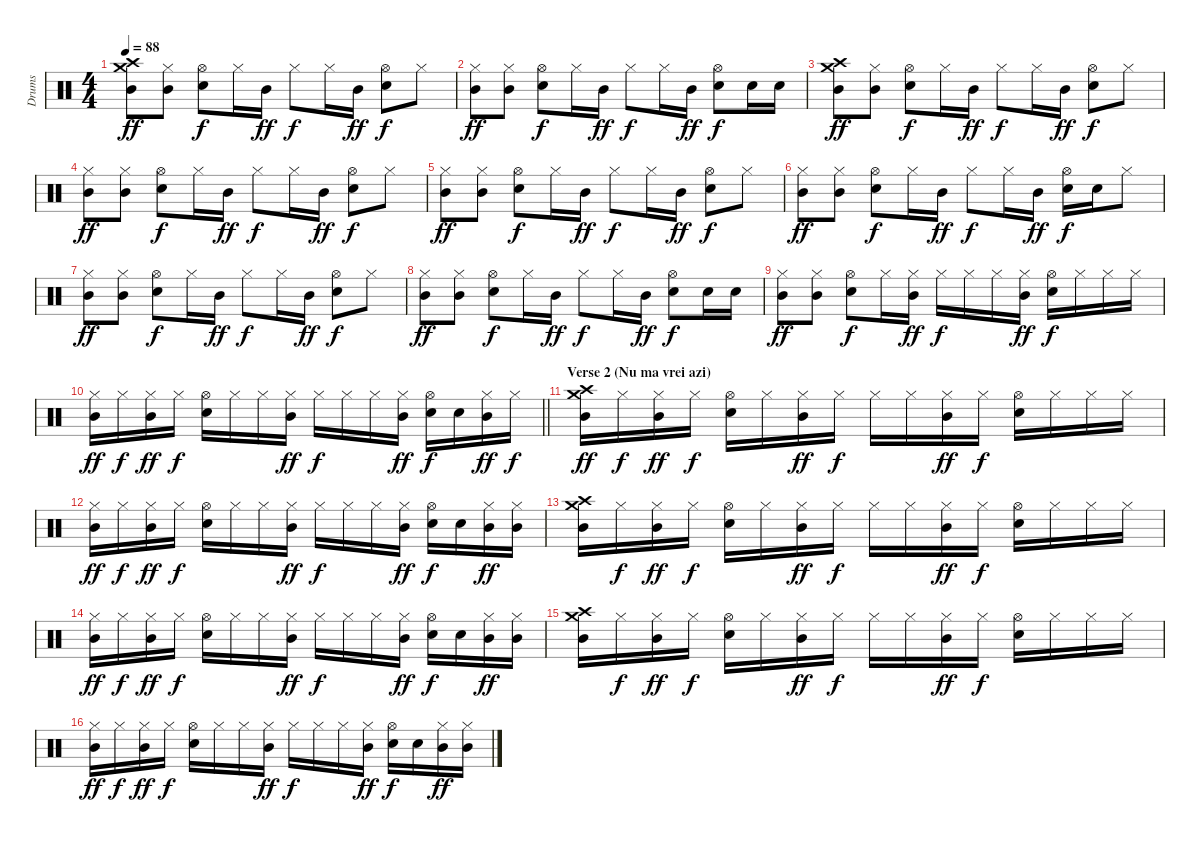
\track ("Drums" "Drums") {instrument percussion}
\staff {score}
\articulation defaults
\ts (4 4)
\tempo 88
\clef neutral
\ks c
("Crash medium (hit)" "Crash high (hit)" "Mid Tom (hit)").8{dy ff} ("Hi-Hat (closed)" "Mid Tom (hit)").8 ("Hi-Hat (open)" "Electric Snare (hit)").8{dy f} "Hi-Hat (closed)".16 "Mid Tom (hit)".16{dy ff} "Hi-Hat (closed)".8{dy f} "Hi-Hat (closed)".16 "Mid Tom (hit)".16{dy ff} ("Hi-Hat (open)" "Electric Snare (hit)").8{dy f} "Hi-Hat (closed)".8 |
("Hi-Hat (closed)" "Mid Tom (hit)").8{dy ff} ("Hi-Hat (closed)" "Mid Tom (hit)").8 ("Hi-Hat (open)" "Electric Snare (hit)").8{dy f} "Hi-Hat (closed)".16 "Mid Tom (hit)".16{dy ff} "Hi-Hat (closed)".8{dy f} "Hi-Hat (closed)".16 "Mid Tom (hit)".16{dy ff} ("Hi-Hat (open)" "Electric Snare (hit)").8{dy f} "Metronome (bell)".16 "Metronome (bell)".16 |
("Crash medium (hit)" "Crash high (hit)" "Mid Tom (hit)").8{dy ff} ("Hi-Hat (closed)" "Mid Tom (hit)").8 ("Hi-Hat (open)" "Electric Snare (hit)").8{dy f} "Hi-Hat (closed)".16 "Mid Tom (hit)".16{dy ff} "Hi-Hat (closed)".8{dy f} "Hi-Hat (closed)".16 "Mid Tom (hit)".16{dy ff} ("Hi-Hat (open)" "Electric Snare (hit)").8{dy f} "Hi-Hat (closed)".8 |
("Hi-Hat (closed)" "Mid Tom (hit)").8{dy ff} ("Hi-Hat (closed)" "Mid Tom (hit)").8 ("Hi-Hat (open)" "Electric Snare (hit)").8{dy f} "Hi-Hat (closed)".16 "Mid Tom (hit)".16{dy ff} "Hi-Hat (closed)".8{dy f} "Hi-Hat (closed)".16 "Mid Tom (hit)".16{dy ff} ("Hi-Hat (open)" "Electric Snare (hit)").8{dy f} "Hi-Hat (closed)".8 |
("Hi-Hat (closed)" "Mid Tom (hit)").8{dy ff} ("Hi-Hat (closed)" "Mid Tom (hit)").8 ("Hi-Hat (open)" "Electric Snare (hit)").8{dy f} "Hi-Hat (closed)".16 "Mid Tom (hit)".16{dy ff} "Hi-Hat (closed)".8{dy f} "Hi-Hat (closed)".16 "Mid Tom (hit)".16{dy ff} ("Hi-Hat (open)" "Electric Snare (hit)").8{dy f} "Hi-Hat (closed)".8 |
("Hi-Hat (closed)" "Mid Tom (hit)").8{dy ff} ("Hi-Hat (closed)" "Mid Tom (hit)").8 ("Hi-Hat (open)" "Electric Snare (hit)").8{dy f} "Hi-Hat (closed)".16 "Mid Tom (hit)".16{dy ff} "Hi-Hat (closed)".8{dy f} "Hi-Hat (closed)".16 "Mid Tom (hit)".16{dy ff} ("Hi-Hat (open)" "Electric Snare (hit)").16{dy f} "Electric Snare (hit)".16 "Hi-Hat (closed)".8 |
("Hi-Hat (closed)" "Mid Tom (hit)").8{dy ff} ("Hi-Hat (closed)" "Mid Tom (hit)").8 ("Hi-Hat (open)" "Electric Snare (hit)").8{dy f} "Hi-Hat (closed)".16 "Mid Tom (hit)".16{dy ff} "Hi-Hat (closed)".8{dy f} "Hi-Hat (closed)".16 "Mid Tom (hit)".16{dy ff} ("Hi-Hat (open)" "Electric Snare (hit)").8{dy f} "Hi-Hat (closed)".8 |
("Hi-Hat (closed)" "Mid Tom (hit)").8{dy ff} ("Hi-Hat (closed)" "Mid Tom (hit)").8 ("Hi-Hat (open)" "Electric Snare (hit)").8{dy f} "Hi-Hat (closed)".16 "Mid Tom (hit)".16{dy ff} "Hi-Hat (closed)".8{dy f} "Hi-Hat (closed)".16 "Mid Tom (hit)".16{dy ff} ("Hi-Hat (open)" "Electric Snare (hit)").8{dy f} "Metronome (bell)".16 "Metronome (bell)".16 |
("Hi-Hat (closed)" "Mid Tom (hit)").8{dy ff} ("Hi-Hat (closed)" "Mid Tom (hit)").8 ("Hi-Hat (open)" "Electric Snare (hit)").8{dy f} "Hi-Hat (closed)".16 ("Hi-Hat (closed)" "Mid Tom (hit)").16{dy ff} "Hi-Hat (closed)".16{dy f} "Hi-Hat (closed)".16 "Hi-Hat (closed)".16 ("Hi-Hat (closed)" "Mid Tom (hit)").16{dy ff} ("Hi-Hat (open)" "Electric Snare (hit)").16{dy f} "Hi-Hat (closed)".16 "Hi-Hat (closed)".16 "Hi-Hat (closed)".16 |
\barLineRight lightlight
("Hi-Hat (closed)" "Mid Tom (hit)").16{dy ff} "Hi-Hat (closed)".16{dy f} ("Hi-Hat (closed)" "Mid Tom (hit)").16{dy ff} "Hi-Hat (closed)".16{dy f} ("Hi-Hat (open)" "Electric Snare (hit)").16 "Hi-Hat (closed)".16 "Hi-Hat (closed)".16 ("Hi-Hat (closed)" "Mid Tom (hit)").16{dy ff} "Hi-Hat (closed)".16{dy f} "Hi-Hat (closed)".16 "Hi-Hat (closed)".16 ("Hi-Hat (closed)" "Mid Tom (hit)").16{dy ff} ("Hi-Hat (open)" "Electric Snare (hit)").16{dy f} "Electric Snare (hit)".16 ("Hi-Hat (closed)" "Mid Tom (hit)").16{dy ff} "Hi-Hat (closed)".16{dy f} |
\section ("" "Verse 2 (Nu ma vrei azi)")
("Crash medium (hit)" "Crash high (hit)" "Mid Tom (hit)").16{dy ff} "Hi-Hat (closed)".16{dy f} ("Hi-Hat (closed)" "Mid Tom (hit)").16{dy ff} "Hi-Hat (closed)".16{dy f} ("Hi-Hat (open)" "Electric Snare (hit)").16 "Hi-Hat (closed)".16 ("Hi-Hat (closed)" "Mid Tom (hit)").16{dy ff} "Hi-Hat (closed)".16{dy f} "Hi-Hat (closed)".16 "Hi-Hat (closed)".16 ("Hi-Hat (closed)" "Mid Tom (hit)").16{dy ff} "Hi-Hat (closed)".16{dy f} ("Hi-Hat (open)" "Electric Snare (hit)").16 "Hi-Hat (closed)".16 "Hi-Hat (closed)".16 "Hi-Hat (closed)".16 |
("Hi-Hat (closed)" "Mid Tom (hit)").16{dy ff} "Hi-Hat (closed)".16{dy f} ("Hi-Hat (closed)" "Mid Tom (hit)").16{dy ff} "Hi-Hat (closed)".16{dy f} ("Hi-Hat (open)" "Electric Snare (hit)").16 "Hi-Hat (closed)".16 "Hi-Hat (closed)".16 ("Hi-Hat (closed)" "Mid Tom (hit)").16{dy ff} "Hi-Hat (closed)".16{dy f} "Hi-Hat (closed)".16 "Hi-Hat (closed)".16 ("Hi-Hat (closed)" "Mid Tom (hit)").16{dy ff} ("Hi-Hat (open)" "Electric Snare (hit)").16{dy f} "Electric Snare (hit)".16 ("Hi-Hat (closed)" "Mid Tom (hit)").16{dy ff} ("Hi-Hat (closed)" "Mid Tom (hit)").16 |
("Crash medium (hit)" "Crash high (hit)" "Mid Tom (hit)").16 "Hi-Hat (closed)".16{dy f} ("Hi-Hat (closed)" "Mid Tom (hit)").16{dy ff} "Hi-Hat (closed)".16{dy f} ("Hi-Hat (open)" "Electric Snare (hit)").16 "Hi-Hat (closed)".16 ("Hi-Hat (closed)" "Mid Tom (hit)").16{dy ff} "Hi-Hat (closed)".16{dy f} "Hi-Hat (closed)".16 "Hi-Hat (closed)".16 ("Hi-Hat (closed)" "Mid Tom (hit)").16{dy ff} "Hi-Hat (closed)".16{dy f} ("Hi-Hat (open)" "Electric Snare (hit)").16 "Hi-Hat (closed)".16 "Hi-Hat (closed)".16 "Hi-Hat (closed)".16 |
("Hi-Hat (closed)" "Mid Tom (hit)").16{dy ff} "Hi-Hat (closed)".16{dy f} ("Hi-Hat (closed)" "Mid Tom (hit)").16{dy ff} "Hi-Hat (closed)".16{dy f} ("Hi-Hat (open)" "Electric Snare (hit)").16 "Hi-Hat (closed)".16 "Hi-Hat (closed)".16 ("Hi-Hat (closed)" "Mid Tom (hit)").16{dy ff} "Hi-Hat (closed)".16{dy f} "Hi-Hat (closed)".16 "Hi-Hat (closed)".16 ("Hi-Hat (closed)" "Mid Tom (hit)").16{dy ff} ("Hi-Hat (open)" "Electric Snare (hit)").16{dy f} "Electric Snare (hit)".16 ("Hi-Hat (closed)" "Mid Tom (hit)").16{dy ff} ("Hi-Hat (closed)" "Mid Tom (hit)").16 |
("Crash medium (hit)" "Crash high (hit)" "Mid Tom (hit)").16 "Hi-Hat (closed)".16{dy f} ("Hi-Hat (closed)" "Mid Tom (hit)").16{dy ff} "Hi-Hat (closed)".16{dy f} ("Hi-Hat (open)" "Electric Snare (hit)").16 "Hi-Hat (closed)".16 ("Hi-Hat (closed)" "Mid Tom (hit)").16{dy ff} "Hi-Hat (closed)".16{dy f} "Hi-Hat (closed)".16 "Hi-Hat (closed)".16 ("Hi-Hat (closed)" "Mid Tom (hit)").16{dy ff} "Hi-Hat (closed)".16{dy f} ("Hi-Hat (open)" "Electric Snare (hit)").16 "Hi-Hat (closed)".16 "Hi-Hat (closed)".16 "Hi-Hat (closed)".16 |
("Hi-Hat (closed)" "Mid Tom (hit)").16{dy ff} "Hi-Hat (closed)".16{dy f} ("Hi-Hat (closed)" "Mid Tom (hit)").16{dy ff} "Hi-Hat (closed)".16{dy f} ("Hi-Hat (open)" "Electric Snare (hit)").16 "Hi-Hat (closed)".16 "Hi-Hat (closed)".16 ("Hi-Hat (closed)" "Mid Tom (hit)").16{dy ff} "Hi-Hat (closed)".16{dy f} "Hi-Hat (closed)".16 "Hi-Hat (closed)".16 ("Hi-Hat (closed)" "Mid Tom (hit)").16{dy ff} ("Hi-Hat (open)" "Electric Snare (hit)").16{dy f} "Electric Snare (hit)".16 ("Hi-Hat (closed)" "Mid Tom (hit)").16{dy ff} ("Hi-Hat (closed)" "Mid Tom (hit)").16
